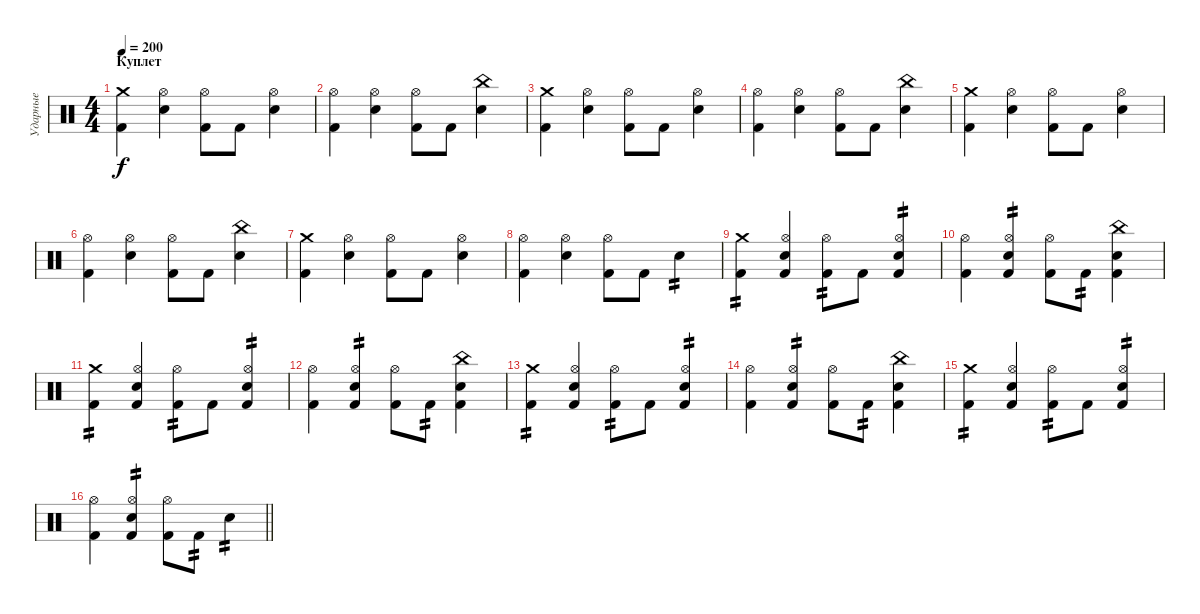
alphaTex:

\track ("Ударные" "Ударные") {instrument percussion}
\staff {score}
\articulation defaults
\ts (4 4)
\section ("" "Куплет")
\tempo 200
\clef neutral
\ks c
("Crash medium (hit)" "Kick (hit) 2").4{dy f} ("Hi-Hat (open)" "Electric Snare (hit)").4 ("Hi-Hat (open)" "Kick (hit) 2").8 "Kick (hit) 2".8 ("Hi-Hat (open)" "Electric Snare (hit)").4 |
("Hi-Hat (open)" "Kick (hit) 2").4 ("Hi-Hat (open)" "Electric Snare (hit)").4 ("Hi-Hat (open)" "Kick (hit) 2").8 "Kick (hit) 2".8 ("China (hit)" "Electric Snare (hit)").4 |
("Crash medium (hit)" "Kick (hit) 2").4 ("Hi-Hat (open)" "Electric Snare (hit)").4 ("Hi-Hat (open)" "Kick (hit) 2").8 "Kick (hit) 2".8 ("Hi-Hat (open)" "Electric Snare (hit)").4 |
("Hi-Hat (open)" "Kick (hit) 2").4 ("Hi-Hat (open)" "Electric Snare (hit)").4 ("Hi-Hat (open)" "Kick (hit) 2").8 "Kick (hit) 2".8 ("China (hit)" "Electric Snare (hit)").4 |
("Crash medium (hit)" "Kick (hit) 2").4 ("Hi-Hat (open)" "Electric Snare (hit)").4 ("Hi-Hat (open)" "Kick (hit) 2").8 "Kick (hit) 2".8 ("Hi-Hat (open)" "Electric Snare (hit)").4 |
("Hi-Hat (open)" "Kick (hit) 2").4 ("Hi-Hat (open)" "Electric Snare (hit)").4 ("Hi-Hat (open)" "Kick (hit) 2").8 "Kick (hit) 2".8 ("China (hit)" "Electric Snare (hit)").4 |
("Crash medium (hit)" "Kick (hit) 2").4 ("Hi-Hat (open)" "Electric Snare (hit)").4 ("Hi-Hat (open)" "Kick (hit) 2").8 "Kick (hit) 2".8 ("Hi-Hat (open)" "Electric Snare (hit)").4 |
("Hi-Hat (open)" "Kick (hit) 2").4 ("Hi-Hat (open)" "Electric Snare (hit)").4 ("Hi-Hat (open)" "Kick (hit) 2").8 "Kick (hit) 2".8 "Electric Snare (hit)".4{tp 2} |
("Crash medium (hit)" "Kick (hit) 2").4{tp 2} ("Hi-Hat (open)" "Electric Snare (hit)" "Kick (hit) 2").4 ("Hi-Hat (open)" "Kick (hit) 2").8{tp 2} "Kick (hit) 2".8 ("Hi-Hat (open)" "Electric Snare (hit)" "Kick (hit) 2").4{tp 2} |
("Hi-Hat (open)" "Kick (hit) 2").4 ("Hi-Hat (open)" "Electric Snare (hit)" "Kick (hit) 2").4{tp 2} ("Hi-Hat (open)" "Kick (hit) 2").8 "Kick (hit) 2".8{tp 2} ("China (hit)" "Electric Snare (hit)" "Kick (hit) 2").4 |
("Crash medium (hit)" "Kick (hit) 2").4{tp 2} ("Hi-Hat (open)" "Electric Snare (hit)" "Kick (hit) 2").4 ("Hi-Hat (open)" "Kick (hit) 2").8{tp 2} "Kick (hit) 2".8 ("Hi-Hat (open)" "Electric Snare (hit)" "Kick (hit) 2").4{tp 2} |
("Hi-Hat (open)" "Kick (hit) 2").4 ("Hi-Hat (open)" "Electric Snare (hit)" "Kick (hit) 2").4{tp 2} ("Hi-Hat (open)" "Kick (hit) 2").8 "Kick (hit) 2".8{tp 2} ("China (hit)" "Electric Snare (hit)" "Kick (hit) 2").4 |
("Crash medium (hit)" "Kick (hit) 2").4{tp 2} ("Hi-Hat (open)" "Electric Snare (hit)" "Kick (hit) 2").4 ("Hi-Hat (open)" "Kick (hit) 2").8{tp 2} "Kick (hit) 2".8 ("Hi-Hat (open)" "Electric Snare (hit)" "Kick (hit) 2").4{tp 2} |
("Hi-Hat (open)" "Kick (hit) 2").4 ("Hi-Hat (open)" "Electric Snare (hit)" "Kick (hit) 2").4{tp 2} ("Hi-Hat (open)" "Kick (hit) 2").8 "Kick (hit) 2".8{tp 2} ("China (hit)" "Electric Snare (hit)" "Kick (hit) 2").4 |
("Crash medium (hit)" "Kick (hit) 2").4{tp 2} ("Hi-Hat (open)" "Electric Snare (hit)" "Kick (hit) 2").4 ("Hi-Hat (open)" "Kick (hit) 2").8{tp 2} "Kick (hit) 2".8 ("Hi-Hat (open)" "Electric Snare (hit)" "Kick (hit) 2").4{tp 2} |
\barLineRight lightlight
("Hi-Hat (open)" "Kick (hit) 2").4 ("Hi-Hat (open)" "Electric Snare (hit)" "Kick (hit) 2").4{tp 2} ("Hi-Hat (open)" "Kick (hit) 2").8 "Kick (hit) 2".8{tp 2} "Electric Snare (hit)".4{tp 2}
